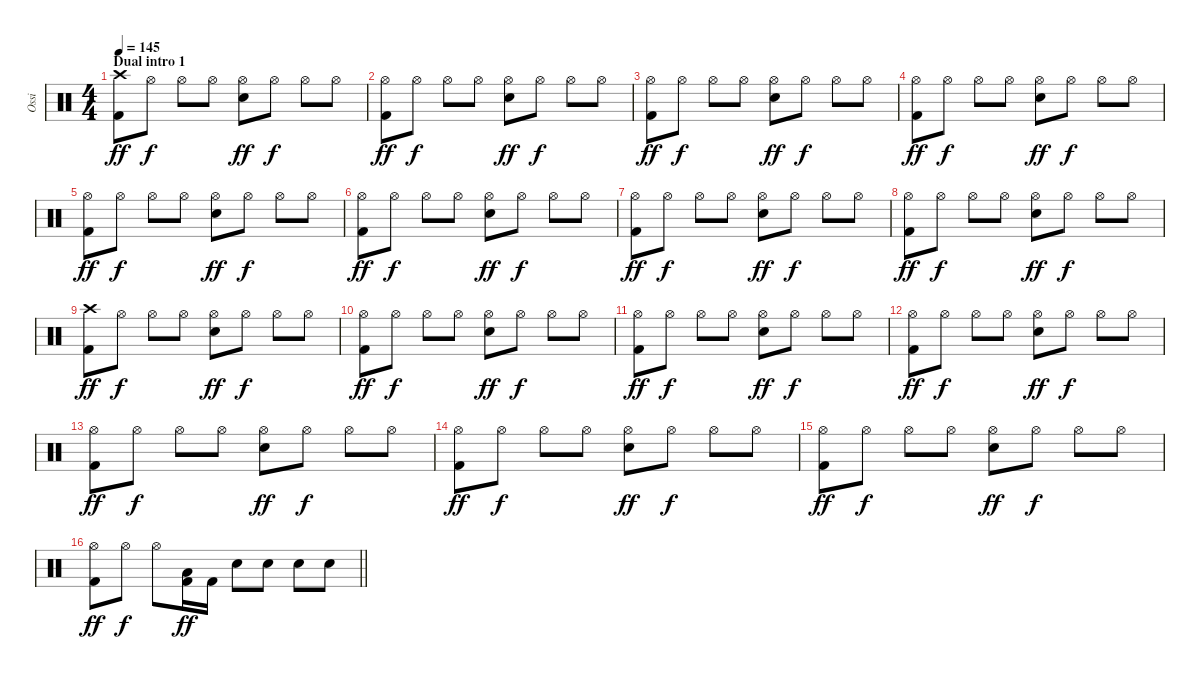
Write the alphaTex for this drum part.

\track ("Ossi" "Ossi") {instrument percussion}
\staff {score}
\articulation defaults
\ts (4 4)
\section ("" "Dual intro 1")
\tempo 145
\clef neutral
\ks c
("Crash high (hit)" "Kick (hit) 2").8{dy ff} "Hi-Hat (open)".8{dy f} "Hi-Hat (open)".8 "Hi-Hat (open)".8 ("Hi-Hat (open)" "Electric Snare (hit)").8{dy ff} "Hi-Hat (open)".8{dy f} "Hi-Hat (open)".8 "Hi-Hat (open)".8 |
("Hi-Hat (open)" "Kick (hit) 2").8{dy ff} "Hi-Hat (open)".8{dy f} "Hi-Hat (open)".8 "Hi-Hat (open)".8 ("Hi-Hat (open)" "Electric Snare (hit)").8{dy ff} "Hi-Hat (open)".8{dy f} "Hi-Hat (open)".8 "Hi-Hat (open)".8 |
("Hi-Hat (open)" "Kick (hit) 2").8{dy ff} "Hi-Hat (open)".8{dy f} "Hi-Hat (open)".8 "Hi-Hat (open)".8 ("Hi-Hat (open)" "Electric Snare (hit)").8{dy ff} "Hi-Hat (open)".8{dy f} "Hi-Hat (open)".8 "Hi-Hat (open)".8 |
("Hi-Hat (open)" "Kick (hit) 2").8{dy ff} "Hi-Hat (open)".8{dy f} "Hi-Hat (open)".8 "Hi-Hat (open)".8 ("Hi-Hat (open)" "Electric Snare (hit)").8{dy ff} "Hi-Hat (open)".8{dy f} "Hi-Hat (open)".8 "Hi-Hat (open)".8 |
("Hi-Hat (open)" "Kick (hit) 2").8{dy ff} "Hi-Hat (open)".8{dy f} "Hi-Hat (open)".8 "Hi-Hat (open)".8 ("Hi-Hat (open)" "Electric Snare (hit)").8{dy ff} "Hi-Hat (open)".8{dy f} "Hi-Hat (open)".8 "Hi-Hat (open)".8 |
("Hi-Hat (open)" "Kick (hit) 2").8{dy ff} "Hi-Hat (open)".8{dy f} "Hi-Hat (open)".8 "Hi-Hat (open)".8 ("Hi-Hat (open)" "Electric Snare (hit)").8{dy ff} "Hi-Hat (open)".8{dy f} "Hi-Hat (open)".8 "Hi-Hat (open)".8 |
("Hi-Hat (open)" "Kick (hit) 2").8{dy ff} "Hi-Hat (open)".8{dy f} "Hi-Hat (open)".8 "Hi-Hat (open)".8 ("Hi-Hat (open)" "Electric Snare (hit)").8{dy ff} "Hi-Hat (open)".8{dy f} "Hi-Hat (open)".8 "Hi-Hat (open)".8 |
("Hi-Hat (open)" "Kick (hit) 2").8{dy ff} "Hi-Hat (open)".8{dy f} "Hi-Hat (open)".8 "Hi-Hat (open)".8 ("Hi-Hat (open)" "Electric Snare (hit)").8{dy ff} "Hi-Hat (open)".8{dy f} "Hi-Hat (open)".8 "Hi-Hat (open)".8 |
("Crash high (hit)" "Kick (hit) 2").8{dy ff} "Hi-Hat (open)".8{dy f} "Hi-Hat (open)".8 "Hi-Hat (open)".8 ("Hi-Hat (open)" "Electric Snare (hit)").8{dy ff} "Hi-Hat (open)".8{dy f} "Hi-Hat (open)".8 "Hi-Hat (open)".8 |
("Hi-Hat (open)" "Kick (hit) 2").8{dy ff} "Hi-Hat (open)".8{dy f} "Hi-Hat (open)".8 "Hi-Hat (open)".8 ("Hi-Hat (open)" "Electric Snare (hit)").8{dy ff} "Hi-Hat (open)".8{dy f} "Hi-Hat (open)".8 "Hi-Hat (open)".8 |
("Hi-Hat (open)" "Kick (hit) 2").8{dy ff} "Hi-Hat (open)".8{dy f} "Hi-Hat (open)".8 "Hi-Hat (open)".8 ("Hi-Hat (open)" "Electric Snare (hit)").8{dy ff} "Hi-Hat (open)".8{dy f} "Hi-Hat (open)".8 "Hi-Hat (open)".8 |
("Hi-Hat (open)" "Kick (hit) 2").8{dy ff} "Hi-Hat (open)".8{dy f} "Hi-Hat (open)".8 "Hi-Hat (open)".8 ("Hi-Hat (open)" "Electric Snare (hit)").8{dy ff} "Hi-Hat (open)".8{dy f} "Hi-Hat (open)".8 "Hi-Hat (open)".8 |
("Hi-Hat (open)" "Kick (hit) 2").8{dy ff} "Hi-Hat (open)".8{dy f} "Hi-Hat (open)".8 "Hi-Hat (open)".8 ("Hi-Hat (open)" "Electric Snare (hit)").8{dy ff} "Hi-Hat (open)".8{dy f} "Hi-Hat (open)".8 "Hi-Hat (open)".8 |
("Hi-Hat (open)" "Kick (hit) 2").8{dy ff} "Hi-Hat (open)".8{dy f} "Hi-Hat (open)".8 "Hi-Hat (open)".8 ("Hi-Hat (open)" "Electric Snare (hit)").8{dy ff} "Hi-Hat (open)".8{dy f} "Hi-Hat (open)".8 "Hi-Hat (open)".8 |
("Hi-Hat (open)" "Kick (hit) 2").8{dy ff} "Hi-Hat (open)".8{dy f} "Hi-Hat (open)".8 "Hi-Hat (open)".8 ("Hi-Hat (open)" "Electric Snare (hit)").8{dy ff} "Hi-Hat (open)".8{dy f} "Hi-Hat (open)".8 "Hi-Hat (open)".8 |
\barLineRight lightlight
("Hi-Hat (open)" "Kick (hit) 2").8{dy ff} "Hi-Hat (open)".8{dy f} "Hi-Hat (open)".8 ("Low Tom (hit)" "Kick (hit) 2").16{dy ff} "Kick (hit) 2".16 "Electric Snare (hit)".8 "Electric Snare (hit)".8 "Electric Snare (hit)".8 "Electric Snare (hit)".8
